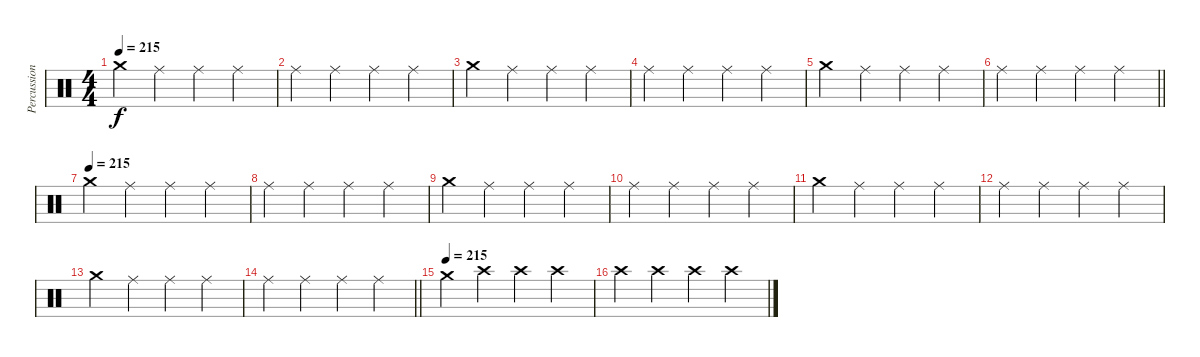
\track ("Percussion" "Percussion") {instrument percussion}
\staff {score}
\articulation defaults
\ts (4 4)
\tempo 215
\clef neutral
\ks c "Crash medium (hit)".4{dy f} "Ride (middle)".4 "Ride (middle)".4 "Ride (middle)".4
|
"Ride (middle)".4 "Ride (middle)".4 "Ride (middle)".4 "Ride (middle)".4 |
"Crash medium (hit)".4 "Ride (middle)".4 "Ride (middle)".4 "Ride (middle)".4 |
"Ride (middle)".4 "Ride (middle)".4 "Ride (middle)".4 "Ride (middle)".4 |
"Crash medium (hit)".4 "Ride (middle)".4 "Ride (middle)".4 "Ride (middle)".4 |
\barLineRight lightlight "Ride (middle)".4 "Ride (middle)".4 "Ride (middle)".4 "Ride (middle)".4
|
\tempo (215)
"Crash medium (hit)".4 "Ride (middle)".4 "Ride (middle)".4 "Ride (middle)".4 |
"Ride (middle)".4 "Ride (middle)".4 "Ride (middle)".4 "Ride (middle)".4 |
"Crash medium (hit)".4 "Ride (middle)".4 "Ride (middle)".4 "Ride (middle)".4 |
"Ride (middle)".4 "Ride (middle)".4 "Ride (middle)".4 "Ride (middle)".4 |
"Crash medium (hit)".4 "Ride (middle)".4 "Ride (middle)".4 "Ride (middle)".4 |
"Ride (middle)".4 "Ride (middle)".4 "Ride (middle)".4 "Ride (middle)".4 |
"Crash medium (hit)".4 "Ride (middle)".4 "Ride (middle)".4 "Ride (middle)".4 |
\barLineRight lightlight "Ride (middle)".4 "Ride (middle)".4 "Ride (middle)".4 "Ride (middle)".4
|
\tempo (215)
"Crash medium (hit)".4 "Crash high (hit)".4 "Crash high (hit)".4 "Crash high (hit)".4 |
"Crash high (hit)".4 "Crash high (hit)".4 "Crash high (hit)".4 "Crash high (hit)".4
